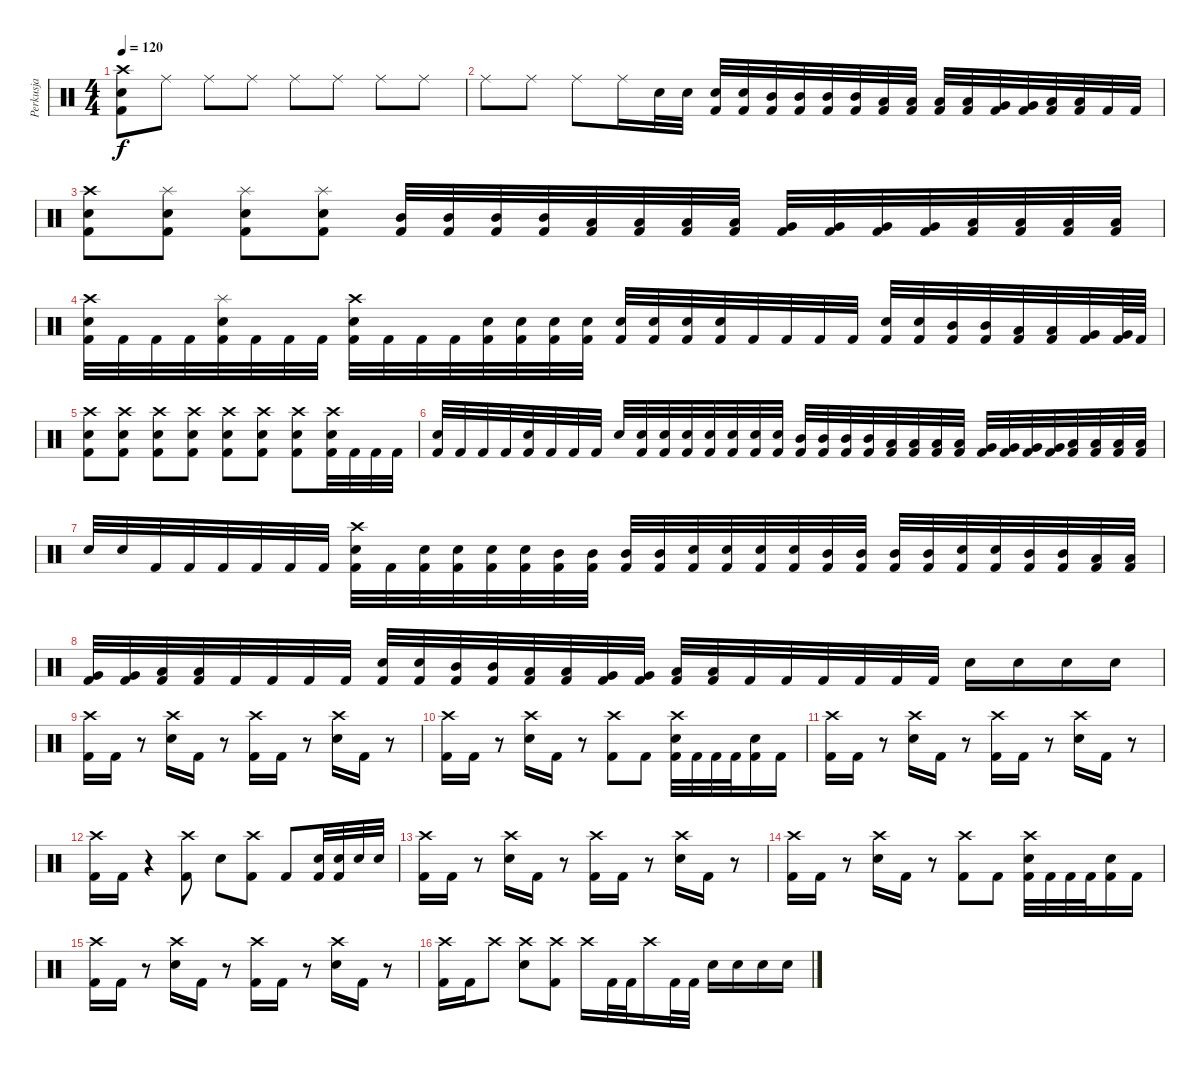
\track ("Perkusja" "Perkusja") {instrument percussion}
\staff {score}
\articulation defaults
\ts (4 4)
\tempo 120
\clef neutral
\ks c
("Crash high (hit)" "Electric Snare (hit)" "Kick (hit) 2").8{dy f} "Ride (middle)".8 "Ride (middle)".8 "Ride (middle)".8 "Ride (middle)".8 "Ride (middle)".8 "Ride (middle)".8 "Ride (middle)".8 |
"Ride (middle)".8 "Ride (middle)".8 "Ride (middle)".8 "Ride (middle)".16 "Electric Snare (hit)".32 "Electric Snare (hit)".32 ("Electric Snare (hit)" "Kick (hit) 2").32 ("Electric Snare (hit)" "Kick (hit) 2").32 ("Mid Tom (hit)" "Kick (hit) 2").32 ("Mid Tom (hit)" "Kick (hit) 2").32 ("Mid Tom (hit)" "Kick (hit) 2").32 ("Mid Tom (hit)" "Kick (hit) 2").32 ("Low Tom (hit)" "Kick (hit) 2").32 ("Low Tom (hit)" "Kick (hit) 2").32 ("Low Tom (hit)" "Kick (hit) 2").32 ("Low Tom (hit)" "Kick (hit) 2").32 ("Very Low Tom (hit)" "Kick (hit) 2").32 ("Very Low Tom (hit)" "Kick (hit) 2").32 ("Low Floor Tom (hit)" "Kick (hit) 2").32 ("Low Floor Tom (hit)" "Kick (hit) 2").32 "Kick (hit) 2".32 "Kick (hit) 2".32 |
("Crash high (hit)" "Electric Snare (hit)" "Kick (hit) 2").8 ("Splash (hit)" "Electric Snare (hit)" "Kick (hit) 2").8 ("Splash (hit)" "Electric Snare (hit)" "Kick (hit) 2").8 ("Splash (hit)" "Electric Snare (hit)" "Kick (hit) 2").8 ("Mid Tom (hit)" "Kick (hit) 2").32 ("Mid Tom (hit)" "Kick (hit) 2").32 ("Mid Tom (hit)" "Kick (hit) 2").32 ("Mid Tom (hit)" "Kick (hit) 2").32 ("Low Tom (hit)" "Kick (hit) 2").32 ("Low Tom (hit)" "Kick (hit) 2").32 ("Low Tom (hit)" "Kick (hit) 2").32 ("Low Tom (hit)" "Kick (hit) 2").32 ("Very Low Tom (hit)" "Kick (hit) 2").32 ("Very Low Tom (hit)" "Kick (hit) 2").32 ("Very Low Tom (hit)" "Kick (hit) 2").32 ("Very Low Tom (hit)" "Kick (hit) 2").32 ("Low Floor Tom (hit)" "Kick (hit) 2").32 ("Low Floor Tom (hit)" "Kick (hit) 2").32 ("Low Floor Tom (hit)" "Kick (hit) 2").32 ("Low Floor Tom (hit)" "Kick (hit) 2").32 |
("Crash high (hit)" "Electric Snare (hit)" "Kick (hit) 2").32 "Kick (hit) 2".32 "Kick (hit) 2".32 "Kick (hit) 2".32 ("Splash (hit)" "Electric Snare (hit)" "Kick (hit) 2").32 "Kick (hit) 2".32 "Kick (hit) 2".32 "Kick (hit) 2".32 ("Crash high (hit)" "Electric Snare (hit)" "Kick (hit) 2").32 "Kick (hit) 2".32 "Kick (hit) 2".32 "Kick (hit) 2".32 ("Electric Snare (hit)" "Kick (hit) 2").32 ("Electric Snare (hit)" "Kick (hit) 2").32 ("Electric Snare (hit)" "Kick (hit) 2").32 ("Electric Snare (hit)" "Kick (hit) 2").32 ("Electric Snare (hit)" "Kick (hit) 2").32 ("Electric Snare (hit)" "Kick (hit) 2").32 ("Electric Snare (hit)" "Kick (hit) 2").32 ("Electric Snare (hit)" "Kick (hit) 2").32 "Kick (hit) 2".32 "Kick (hit) 2".32 "Kick (hit) 2".32 "Kick (hit) 2".32 ("Electric Snare (hit)" "Kick (hit) 2").32 ("Electric Snare (hit)" "Kick (hit) 2").32 ("Mid Tom (hit)" "Kick (hit) 2").32 ("Mid Tom (hit)" "Kick (hit) 2").32 ("Low Tom (hit)" "Kick (hit) 2").32 ("Low Tom (hit)" "Kick (hit) 2").32 ("Very Low Tom (hit)" "Kick (hit) 2").32 ("Very Low Tom (hit)" "Kick (hit) 2").64 "Kick (hit) 2".64 |
("Crash high (hit)" "Electric Snare (hit)" "Kick (hit) 2").8 ("Crash high (hit)" "Electric Snare (hit)" "Kick (hit) 2").8 ("Crash high (hit)" "Electric Snare (hit)" "Kick (hit) 2").8 ("Crash high (hit)" "Electric Snare (hit)" "Kick (hit) 2").8 ("Crash high (hit)" "Electric Snare (hit)" "Kick (hit) 2").8 ("Crash high (hit)" "Electric Snare (hit)" "Kick (hit) 2").8 ("Crash high (hit)" "Electric Snare (hit)" "Kick (hit) 2").8 ("Crash high (hit)" "Electric Snare (hit)" "Kick (hit) 2").32 "Kick (hit) 2".32 "Kick (hit) 2".32 "Kick (hit) 2".32 |
("Electric Snare (hit)" "Kick (hit) 2").32 "Kick (hit) 2".32 "Kick (hit) 2".32 "Kick (hit) 2".32 ("Electric Snare (hit)" "Kick (hit) 2").32 "Kick (hit) 2".32 "Kick (hit) 2".32 "Kick (hit) 2".32 "Electric Snare (hit)".32 ("Electric Snare (hit)" "Kick (hit) 2").32 ("Electric Snare (hit)" "Kick (hit) 2").32 ("Electric Snare (hit)" "Kick (hit) 2").32 ("Electric Snare (hit)" "Kick (hit) 2").32 ("Electric Snare (hit)" "Kick (hit) 2").32 ("Electric Snare (hit)" "Kick (hit) 2").32 ("Electric Snare (hit)" "Kick (hit) 2").32 ("Mid Tom (hit)" "Kick (hit) 2").32 ("Mid Tom (hit)" "Kick (hit) 2").32 ("Mid Tom (hit)" "Kick (hit) 2").32 ("Mid Tom (hit)" "Kick (hit) 2").32 ("Low Tom (hit)" "Kick (hit) 2").32 ("Low Tom (hit)" "Kick (hit) 2").32 ("Low Tom (hit)" "Kick (hit) 2").32 ("Low Tom (hit)" "Kick (hit) 2").32 ("Very Low Tom (hit)" "Kick (hit) 2").32 ("Very Low Tom (hit)" "Kick (hit) 2").32 ("Very Low Tom (hit)" "Kick (hit) 2").32 ("Very Low Tom (hit)" "Kick (hit) 2").32 ("Low Floor Tom (hit)" "Kick (hit) 2").32 ("Low Floor Tom (hit)" "Kick (hit) 2").32 ("Low Floor Tom (hit)" "Kick (hit) 2").32 ("Low Floor Tom (hit)" "Kick (hit) 2").32 |
"Electric Snare (hit)".32 "Electric Snare (hit)".32 "Kick (hit) 2".32 "Kick (hit) 2".32 "Kick (hit) 2".32 "Kick (hit) 2".32 "Kick (hit) 2".32 "Kick (hit) 2".32 ("Crash high (hit)" "Electric Snare (hit)" "Kick (hit) 2").32 "Kick (hit) 2".32 ("Electric Snare (hit)" "Kick (hit) 2").32 ("Electric Snare (hit)" "Kick (hit) 2").32 ("Electric Snare (hit)" "Kick (hit) 2").32 ("Electric Snare (hit)" "Kick (hit) 2").32 ("Mid Tom (hit)" "Kick (hit) 2").32 ("Mid Tom (hit)" "Kick (hit) 2").32 ("Mid Tom (hit)" "Kick (hit) 2").32 ("Mid Tom (hit)" "Kick (hit) 2").32 ("Electric Snare (hit)" "Kick (hit) 2").32 ("Electric Snare (hit)" "Kick (hit) 2").32 ("Electric Snare (hit)" "Kick (hit) 2").32 ("Electric Snare (hit)" "Kick (hit) 2").32 ("Mid Tom (hit)" "Kick (hit) 2").32 ("Mid Tom (hit)" "Kick (hit) 2").32 ("Mid Tom (hit)" "Kick (hit) 2").32 ("Mid Tom (hit)" "Kick (hit) 2").32 ("Electric Snare (hit)" "Kick (hit) 2").32 ("Electric Snare (hit)" "Kick (hit) 2").32 ("Mid Tom (hit)" "Kick (hit) 2").32 ("Mid Tom (hit)" "Kick (hit) 2").32 ("Low Tom (hit)" "Kick (hit) 2").32 ("Low Tom (hit)" "Kick (hit) 2").32 |
("Very Low Tom (hit)" "Kick (hit) 2").32 ("Very Low Tom (hit)" "Kick (hit) 2").32 ("Low Floor Tom (hit)" "Kick (hit) 2").32 ("Low Floor Tom (hit)" "Kick (hit) 2").32 "Kick (hit) 2".32 "Kick (hit) 2".32 "Kick (hit) 2".32 "Kick (hit) 2".32 ("Electric Snare (hit)" "Kick (hit) 2").32 ("Electric Snare (hit)" "Kick (hit) 2").32 ("Mid Tom (hit)" "Kick (hit) 2").32 ("Mid Tom (hit)" "Kick (hit) 2").32 ("Low Tom (hit)" "Kick (hit) 2").32 ("Low Tom (hit)" "Kick (hit) 2").32 ("Very Low Tom (hit)" "Kick (hit) 2").32 ("Very Low Tom (hit)" "Kick (hit) 2").32 ("Low Floor Tom (hit)" "Kick (hit) 2").32 ("Low Floor Tom (hit)" "Kick (hit) 2").32 "Kick (hit) 2".32 "Kick (hit) 2".32 "Kick (hit) 2".32 "Kick (hit) 2".32 "Kick (hit) 2".32 "Kick (hit) 2".32 "Electric Snare (hit)".16 "Electric Snare (hit)".16 "Electric Snare (hit)".16 "Electric Snare (hit)".16 |
("Crash high (hit)" "Kick (hit) 2").16 "Kick (hit) 2".16 r.8 ("Crash high (hit)" "Electric Snare (hit)").16 "Kick (hit) 2".16 r.8 ("Crash high (hit)" "Kick (hit) 2").16 "Kick (hit) 2".16 r.8 ("Crash high (hit)" "Electric Snare (hit)").16 "Kick (hit) 2".16 r.8 |
("Crash high (hit)" "Kick (hit) 2").16 "Kick (hit) 2".16 r.8 ("Crash high (hit)" "Electric Snare (hit)").16 "Kick (hit) 2".16 r.8 ("Crash high (hit)" "Kick (hit) 2").8 "Kick (hit) 2".8 ("Crash high (hit)" "Electric Snare (hit)" "Kick (hit) 2").32 "Kick (hit) 2".32 "Kick (hit) 2".32 "Kick (hit) 2".32 ("Electric Snare (hit)" "Kick (hit) 2").16 "Kick (hit) 2".16 |
("Crash high (hit)" "Kick (hit) 2").16 "Kick (hit) 2".16 r.8 ("Crash high (hit)" "Electric Snare (hit)").16 "Kick (hit) 2".16 r.8 ("Crash high (hit)" "Kick (hit) 2").16 "Kick (hit) 2".16 r.8 ("Crash high (hit)" "Electric Snare (hit)").16 "Kick (hit) 2".16 r.8 |
("Crash high (hit)" "Kick (hit) 2").16 "Kick (hit) 2".16 r.4 ("Crash high (hit)" "Kick (hit) 2").8 "Electric Snare (hit)".8 ("Crash high (hit)" "Kick (hit) 2").8 "Kick (hit) 2".8 ("Electric Snare (hit)" "Kick (hit) 2").32 ("Electric Snare (hit)" "Kick (hit) 2").32 "Electric Snare (hit)".32 "Electric Snare (hit)".32 |
("Crash high (hit)" "Kick (hit) 2").16 "Kick (hit) 2".16 r.8 ("Crash high (hit)" "Electric Snare (hit)").16 "Kick (hit) 2".16 r.8 ("Crash high (hit)" "Kick (hit) 2").16 "Kick (hit) 2".16 r.8 ("Crash high (hit)" "Electric Snare (hit)").16 "Kick (hit) 2".16 r.8 |
("Crash high (hit)" "Kick (hit) 2").16 "Kick (hit) 2".16 r.8 ("Crash high (hit)" "Electric Snare (hit)").16 "Kick (hit) 2".16 r.8 ("Crash high (hit)" "Kick (hit) 2").8 "Kick (hit) 2".8 ("Crash high (hit)" "Electric Snare (hit)" "Kick (hit) 2").32 "Kick (hit) 2".32 "Kick (hit) 2".32 "Kick (hit) 2".32 ("Electric Snare (hit)" "Kick (hit) 2").16 "Kick (hit) 2".16 |
("Crash high (hit)" "Kick (hit) 2").16 "Kick (hit) 2".16 r.8 ("Crash high (hit)" "Electric Snare (hit)").16 "Kick (hit) 2".16 r.8 ("Crash high (hit)" "Kick (hit) 2").16 "Kick (hit) 2".16 r.8 ("Crash high (hit)" "Electric Snare (hit)").16 "Kick (hit) 2".16 r.8 |
("Crash high (hit)" "Kick (hit) 2").16 "Kick (hit) 2".16 "Crash high (hit)".8 ("Crash high (hit)" "Electric Snare (hit)").8 ("Crash high (hit)" "Kick (hit) 2").8 "Crash high (hit)".16 "Kick (hit) 2".32 "Kick (hit) 2".32 "Crash high (hit)".16 "Kick (hit) 2".32 "Kick (hit) 2".32 "Electric Snare (hit)".16 "Electric Snare (hit)".16 "Electric Snare (hit)".16 "Electric Snare (hit)".16
